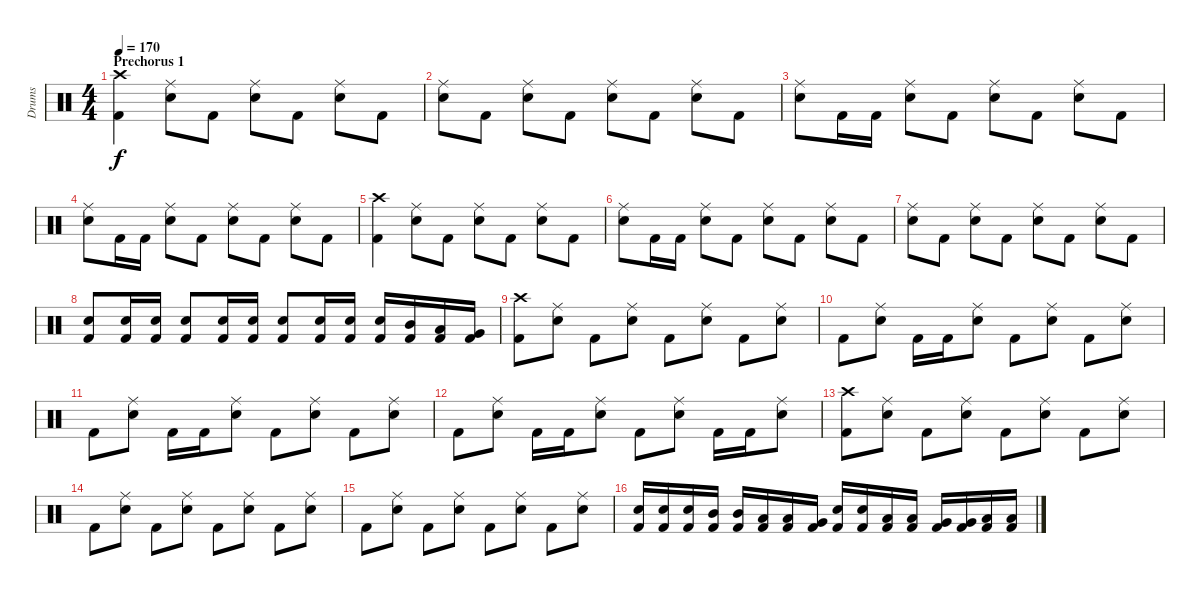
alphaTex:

\track ("Drums" "Drums") {instrument percussion}
\staff {score}
\articulation defaults
\ts (4 4)
\section ("" "Prechorus 1")
\tempo 170
\clef neutral
\ks c
("Crash high (hit)" "Kick (hit) 2").4{dy f} ("Ride (middle)" "Snare (hit) 2").8 "Kick (hit) 2".8 ("Ride (middle)" "Snare (hit) 2").8 "Kick (hit) 2".8 ("Ride (middle)" "Snare (hit) 2").8 "Kick (hit) 2".8 |
("Ride (middle)" "Snare (hit) 2").8 "Kick (hit) 2".8 ("Ride (middle)" "Snare (hit) 2").8 "Kick (hit) 2".8 ("Ride (middle)" "Snare (hit) 2").8 "Kick (hit) 2".8 ("Ride (middle)" "Snare (hit) 2").8 "Kick (hit) 2".8 |
("Ride (middle)" "Snare (hit) 2").8 "Kick (hit) 2".16 "Kick (hit) 2".16 ("Ride (middle)" "Snare (hit) 2").8 "Kick (hit) 2".8 ("Ride (middle)" "Snare (hit) 2").8 "Kick (hit) 2".8 ("Ride (middle)" "Snare (hit) 2").8 "Kick (hit) 2".8 |
("Ride (middle)" "Snare (hit) 2").8 "Kick (hit) 2".16 "Kick (hit) 2".16 ("Ride (middle)" "Snare (hit) 2").8 "Kick (hit) 2".8 ("Ride (middle)" "Snare (hit) 2").8 "Kick (hit) 2".8 ("Ride (middle)" "Snare (hit) 2").8 "Kick (hit) 2".8 |
("Crash high (hit)" "Kick (hit) 2").4 ("Ride (middle)" "Snare (hit) 2").8 "Kick (hit) 2".8 ("Ride (middle)" "Snare (hit) 2").8 "Kick (hit) 2".8 ("Ride (middle)" "Snare (hit) 2").8 "Kick (hit) 2".8 |
("Ride (middle)" "Snare (hit) 2").8 "Kick (hit) 2".16 "Kick (hit) 2".16 ("Ride (middle)" "Snare (hit) 2").8 "Kick (hit) 2".8 ("Ride (middle)" "Snare (hit) 2").8 "Kick (hit) 2".8 ("Ride (middle)" "Snare (hit) 2").8 "Kick (hit) 2".8 |
("Ride (middle)" "Snare (hit) 2").8 "Kick (hit) 2".8 ("Ride (middle)" "Snare (hit) 2").8 "Kick (hit) 2".8 ("Ride (middle)" "Snare (hit) 2").8 "Kick (hit) 2".8 ("Ride (middle)" "Snare (hit) 2").8 "Kick (hit) 2".8 |
("Snare (hit) 2" "Kick (hit) 2").8 ("Snare (hit) 2" "Kick (hit) 2").16 ("Snare (hit) 2" "Kick (hit) 2").16 ("Snare (hit) 2" "Kick (hit) 2").8 ("Snare (hit) 2" "Kick (hit) 2").16 ("Snare (hit) 2" "Kick (hit) 2").16 ("Snare (hit) 2" "Kick (hit) 2").8 ("Snare (hit) 2" "Kick (hit) 2").16 ("Snare (hit) 2" "Kick (hit) 2").16 ("Snare (hit) 2" "Kick (hit) 2").16 ("Mid Tom (hit)" "Kick (hit) 2").16 ("Low Tom (hit)" "Kick (hit) 2").16 ("Very Low Tom (hit)" "Kick (hit) 2").16 |
("Crash high (hit)" "Kick (hit) 2").8 ("Ride (middle)" "Snare (hit) 2").8 "Kick (hit) 2".8 ("Ride (middle)" "Snare (hit) 2").8 "Kick (hit) 2".8 ("Ride (middle)" "Snare (hit) 2").8 "Kick (hit) 2".8 ("Ride (middle)" "Snare (hit) 2").8 |
"Kick (hit) 2".8 ("Ride (middle)" "Snare (hit) 2").8 "Kick (hit) 2".16 "Kick (hit) 2".16 ("Ride (middle)" "Snare (hit) 2").8 "Kick (hit) 2".8 ("Ride (middle)" "Snare (hit) 2").8 "Kick (hit) 2".8 ("Ride (middle)" "Snare (hit) 2").8 |
"Kick (hit) 2".8 ("Ride (middle)" "Snare (hit) 2").8 "Kick (hit) 2".16 "Kick (hit) 2".16 ("Ride (middle)" "Snare (hit) 2").8 "Kick (hit) 2".8 ("Ride (middle)" "Snare (hit) 2").8 "Kick (hit) 2".8 ("Ride (middle)" "Snare (hit) 2").8 |
"Kick (hit) 2".8 ("Ride (middle)" "Snare (hit) 2").8 "Kick (hit) 2".16 "Kick (hit) 2".16 ("Ride (middle)" "Snare (hit) 2").8 "Kick (hit) 2".8 ("Ride (middle)" "Snare (hit) 2").8 "Kick (hit) 2".16 "Kick (hit) 2".16 ("Ride (middle)" "Snare (hit) 2").8 |
("Crash high (hit)" "Kick (hit) 2").8 ("Ride (middle)" "Snare (hit) 2").8 "Kick (hit) 2".8 ("Ride (middle)" "Snare (hit) 2").8 "Kick (hit) 2".8 ("Ride (middle)" "Snare (hit) 2").8 "Kick (hit) 2".8 ("Ride (middle)" "Snare (hit) 2").8 |
"Kick (hit) 2".8 ("Ride (middle)" "Snare (hit) 2").8 "Kick (hit) 2".8 ("Ride (middle)" "Snare (hit) 2").8 "Kick (hit) 2".8 ("Ride (middle)" "Snare (hit) 2").8 "Kick (hit) 2".8 ("Ride (middle)" "Snare (hit) 2").8 |
"Kick (hit) 2".8 ("Ride (middle)" "Snare (hit) 2").8 "Kick (hit) 2".8 ("Ride (middle)" "Snare (hit) 2").8 "Kick (hit) 2".8 ("Ride (middle)" "Snare (hit) 2").8 "Kick (hit) 2".8 ("Ride (middle)" "Snare (hit) 2").8 |
("Snare (hit) 2" "Kick (hit) 2").16 ("Snare (hit) 2" "Kick (hit) 2").16 ("Snare (hit) 2" "Kick (hit) 2").16 ("Mid Tom (hit)" "Kick (hit) 2").16 ("Mid Tom (hit)" "Kick (hit) 2").16 ("Low Tom (hit)" "Kick (hit) 2").16 ("Low Tom (hit)" "Kick (hit) 2").16 ("Very Low Tom (hit)" "Kick (hit) 2").16 ("Snare (hit) 2" "Kick (hit) 2").16 ("Snare (hit) 2" "Kick (hit) 2").16 ("Low Tom (hit)" "Kick (hit) 2").16 ("Low Tom (hit)" "Kick (hit) 2").16 ("Very Low Tom (hit)" "Kick (hit) 2").16 ("Very Low Tom (hit)" "Kick (hit) 2").16 ("Low Floor Tom (hit)" "Kick (hit) 2").16 ("Low Floor Tom (hit)" "Kick (hit) 2").16
